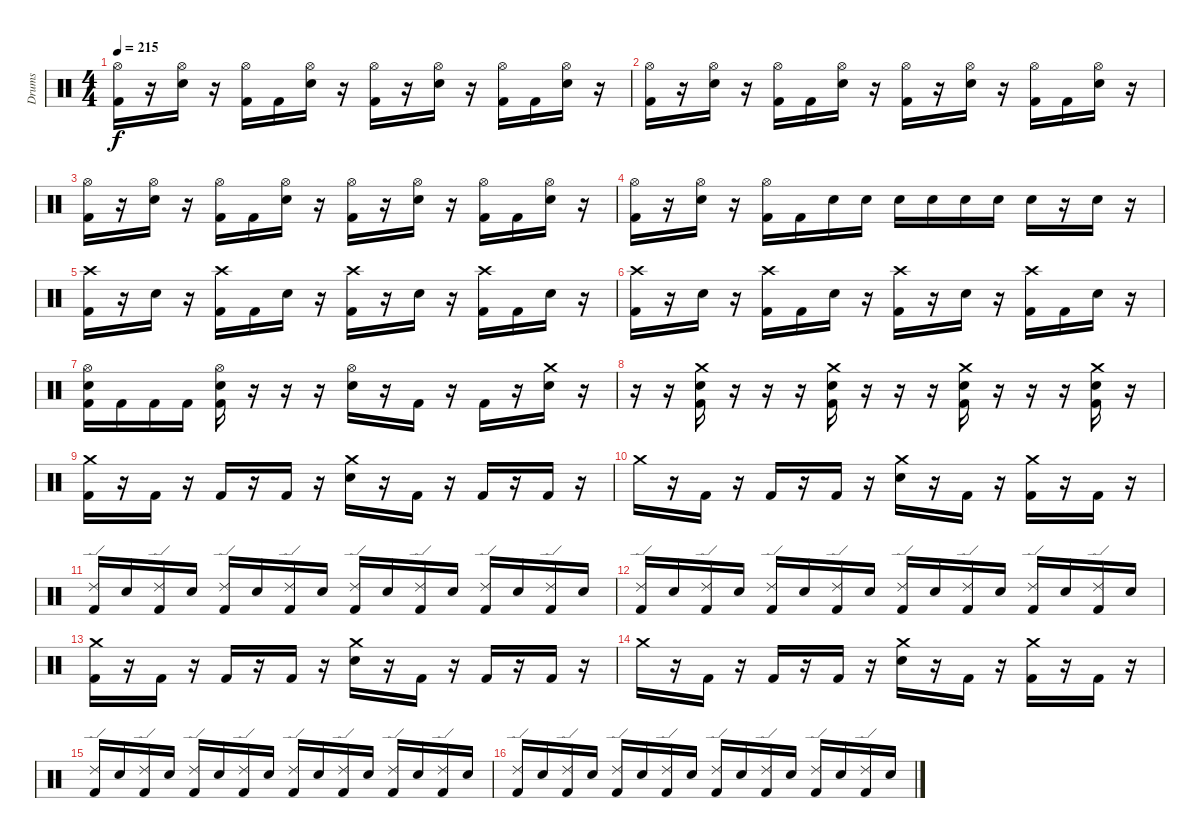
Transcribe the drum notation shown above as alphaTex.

\track ("Drums" "Drums") {instrument percussion}
\staff {score}
\articulation defaults
\ts (4 4)
\tempo 215
\clef neutral
\ks c
("Hi-Hat (open)" "Kick (hit) 2").16{dy f} r.16 ("Hi-Hat (open)" "Snare (hit) 2").16 r.16 ("Hi-Hat (open)" "Kick (hit) 2").16 "Kick (hit) 2".16 ("Hi-Hat (open)" "Snare (hit) 2").16 r.16 ("Hi-Hat (open)" "Kick (hit) 2").16 r.16 ("Hi-Hat (open)" "Snare (hit) 2").16 r.16 ("Hi-Hat (open)" "Kick (hit) 2").16 "Kick (hit) 2".16 ("Hi-Hat (open)" "Snare (hit) 2").16 r.16 |
("Hi-Hat (open)" "Kick (hit) 2").16 r.16 ("Hi-Hat (open)" "Snare (hit) 2").16 r.16 ("Hi-Hat (open)" "Kick (hit) 2").16 "Kick (hit) 2".16 ("Hi-Hat (open)" "Snare (hit) 2").16 r.16 ("Hi-Hat (open)" "Kick (hit) 2").16 r.16 ("Hi-Hat (open)" "Snare (hit) 2").16 r.16 ("Hi-Hat (open)" "Kick (hit) 2").16 "Kick (hit) 2".16 ("Hi-Hat (open)" "Snare (hit) 2").16 r.16 |
("Hi-Hat (open)" "Kick (hit) 2").16 r.16 ("Hi-Hat (open)" "Snare (hit) 2").16 r.16 ("Hi-Hat (open)" "Kick (hit) 2").16 "Kick (hit) 2".16 ("Hi-Hat (open)" "Snare (hit) 2").16 r.16 ("Hi-Hat (open)" "Kick (hit) 2").16 r.16 ("Hi-Hat (open)" "Snare (hit) 2").16 r.16 ("Hi-Hat (open)" "Kick (hit) 2").16 "Kick (hit) 2".16 ("Hi-Hat (open)" "Snare (hit) 2").16 r.16 |
("Hi-Hat (open)" "Kick (hit) 2").16 r.16 ("Hi-Hat (open)" "Snare (hit) 2").16 r.16 ("Hi-Hat (open)" "Kick (hit) 2").16 "Kick (hit) 2".16 "Snare (hit) 2".16 "Snare (hit) 2".16 "Snare (hit) 2".16 "Snare (hit) 2".16 "Snare (hit) 2".16 "Snare (hit) 2".16 "Snare (hit) 2".16 r.16 "Snare (hit) 2".16 r.16 |
("Crash high (hit)" "Kick (hit) 2").16 r.16 "Snare (hit) 2".16 r.16 ("Crash high (hit)" "Kick (hit) 2").16 "Kick (hit) 2".16 "Snare (hit) 2".16 r.16 ("Crash high (hit)" "Kick (hit) 2").16 r.16 "Snare (hit) 2".16 r.16 ("Crash high (hit)" "Kick (hit) 2").16 "Kick (hit) 2".16 "Snare (hit) 2".16 r.16 |
("Crash high (hit)" "Kick (hit) 2").16 r.16 "Snare (hit) 2".16 r.16 ("Crash high (hit)" "Kick (hit) 2").16 "Kick (hit) 2".16 "Snare (hit) 2".16 r.16 ("Crash high (hit)" "Kick (hit) 2").16 r.16 "Snare (hit) 2".16 r.16 ("Crash high (hit)" "Kick (hit) 2").16 "Kick (hit) 2".16 "Snare (hit) 2".16 r.16 |
("Hi-Hat (open)" "Snare (hit) 2" "Kick (hit) 2").16 "Kick (hit) 2".16 "Kick (hit) 2".16 "Kick (hit) 2".16 ("Hi-Hat (open)" "Snare (hit) 2" "Kick (hit) 2").16 r.16 r.16 r.16 ("Hi-Hat (open)" "Snare (hit) 2").16 r.16 "Kick (hit) 2".16 r.16 "Kick (hit) 2".16 r.16 ("Crash medium (hit)" "Snare (hit) 2").16 r.16 |
r.16 r.16 ("Crash medium (hit)" "Snare (hit) 2" "Kick (hit) 2").16 r.16 r.16 r.16 ("Crash medium (hit)" "Snare (hit) 2" "Kick (hit) 2").16 r.16 r.16 r.16 ("Crash medium (hit)" "Snare (hit) 2" "Kick (hit) 2").16 r.16 r.16 r.16 ("Crash medium (hit)" "Snare (hit) 2" "Kick (hit) 2").16 r.16 |
("Crash medium (hit)" "Kick (hit) 2").16 r.16 "Kick (hit) 2".16 r.16 "Kick (hit) 2".16 r.16 "Kick (hit) 2".16 r.16 ("Crash medium (hit)" "Snare (hit) 2").16 r.16 "Kick (hit) 2".16 r.16 "Kick (hit) 2".16 r.16 "Kick (hit) 2".16 r.16 |
"Crash medium (hit)".16 r.16 "Kick (hit) 2".16 r.16 "Kick (hit) 2".16 r.16 "Kick (hit) 2".16 r.16 ("Crash medium (hit)" "Snare (hit) 2").16 r.16 "Kick (hit) 2".16 r.16 ("Crash medium (hit)" "Kick (hit) 2").16 r.16 "Kick (hit) 2".16 r.16 |
("Ride (edge) 2" "Kick (hit) 2").16 "Snare (hit) 2".16 ("Ride (edge) 2" "Kick (hit) 2").16 "Snare (hit) 2".16 ("Ride (edge) 2" "Kick (hit) 2").16 "Snare (hit) 2".16 ("Ride (edge) 2" "Kick (hit) 2").16 "Snare (hit) 2".16 ("Ride (edge) 2" "Kick (hit) 2").16 "Snare (hit) 2".16 ("Ride (edge) 2" "Kick (hit) 2").16 "Snare (hit) 2".16 ("Ride (edge) 2" "Kick (hit) 2").16 "Snare (hit) 2".16 ("Ride (edge) 2" "Kick (hit) 2").16 "Snare (hit) 2".16 |
("Ride (edge) 2" "Kick (hit) 2").16 "Snare (hit) 2".16 ("Ride (edge) 2" "Kick (hit) 2").16 "Snare (hit) 2".16 ("Ride (edge) 2" "Kick (hit) 2").16 "Snare (hit) 2".16 ("Ride (edge) 2" "Kick (hit) 2").16 "Snare (hit) 2".16 ("Ride (edge) 2" "Kick (hit) 2").16 "Snare (hit) 2".16 ("Ride (edge) 2" "Kick (hit) 2").16 "Snare (hit) 2".16 ("Ride (edge) 2" "Kick (hit) 2").16 "Snare (hit) 2".16 ("Ride (edge) 2" "Kick (hit) 2").16 "Snare (hit) 2".16 |
("Crash medium (hit)" "Kick (hit) 2").16 r.16 "Kick (hit) 2".16 r.16 "Kick (hit) 2".16 r.16 "Kick (hit) 2".16 r.16 ("Crash medium (hit)" "Snare (hit) 2").16 r.16 "Kick (hit) 2".16 r.16 "Kick (hit) 2".16 r.16 "Kick (hit) 2".16 r.16 |
"Crash medium (hit)".16 r.16 "Kick (hit) 2".16 r.16 "Kick (hit) 2".16 r.16 "Kick (hit) 2".16 r.16 ("Crash medium (hit)" "Snare (hit) 2").16 r.16 "Kick (hit) 2".16 r.16 ("Crash medium (hit)" "Kick (hit) 2").16 r.16 "Kick (hit) 2".16 r.16 |
("Ride (edge) 2" "Kick (hit) 2").16 "Snare (hit) 2".16 ("Ride (edge) 2" "Kick (hit) 2").16 "Snare (hit) 2".16 ("Ride (edge) 2" "Kick (hit) 2").16 "Snare (hit) 2".16 ("Ride (edge) 2" "Kick (hit) 2").16 "Snare (hit) 2".16 ("Ride (edge) 2" "Kick (hit) 2").16 "Snare (hit) 2".16 ("Ride (edge) 2" "Kick (hit) 2").16 "Snare (hit) 2".16 ("Ride (edge) 2" "Kick (hit) 2").16 "Snare (hit) 2".16 ("Ride (edge) 2" "Kick (hit) 2").16 "Snare (hit) 2".16 |
("Ride (edge) 2" "Kick (hit) 2").16 "Snare (hit) 2".16 ("Ride (edge) 2" "Kick (hit) 2").16 "Snare (hit) 2".16 ("Ride (edge) 2" "Kick (hit) 2").16 "Snare (hit) 2".16 ("Ride (edge) 2" "Kick (hit) 2").16 "Snare (hit) 2".16 ("Ride (edge) 2" "Kick (hit) 2").16 "Snare (hit) 2".16 ("Ride (edge) 2" "Kick (hit) 2").16 "Snare (hit) 2".16 ("Ride (edge) 2" "Kick (hit) 2").16 "Snare (hit) 2".16 ("Ride (edge) 2" "Kick (hit) 2").16 "Snare (hit) 2".16
